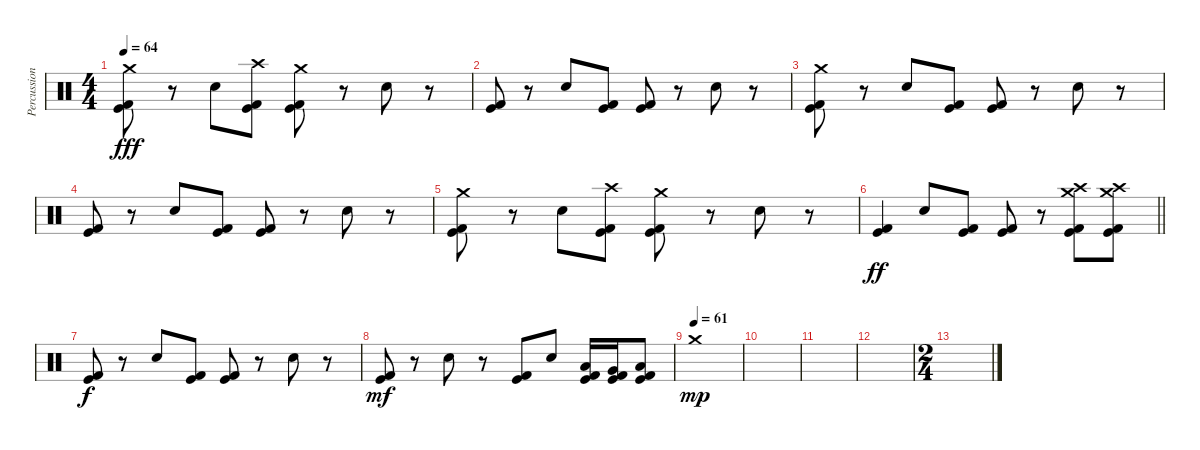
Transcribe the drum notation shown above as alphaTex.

\track ("Percussion" "Percussion") {instrument percussion}
\staff {score}
\articulation defaults
\ts (4 4)
\tempo 64
\clef neutral
\ks c
("Crash medium (hit)" "Kick (hit) 2" "Kick (hit)").8{dy fff} r.8 "Snare (hit) 2".8 ("Crash high (hit)" "Kick (hit) 2" "Kick (hit)").8 ("Crash medium (hit)" "Kick (hit) 2" "Kick (hit)").8 r.8 "Snare (hit) 2".8 r.8 |
("Kick (hit) 2" "Kick (hit)").8 r.8 "Snare (hit) 2".8 ("Kick (hit) 2" "Kick (hit)").8 ("Kick (hit) 2" "Kick (hit)").8 r.8 "Snare (hit) 2".8 r.8 |
("Crash medium (hit)" "Kick (hit) 2" "Kick (hit)").8 r.8 "Snare (hit) 2".8 ("Kick (hit) 2" "Kick (hit)").8 ("Kick (hit) 2" "Kick (hit)").8 r.8 "Snare (hit) 2".8 r.8 |
("Kick (hit) 2" "Kick (hit)").8 r.8 "Snare (hit) 2".8 ("Kick (hit) 2" "Kick (hit)").8 ("Kick (hit) 2" "Kick (hit)").8 r.8 "Snare (hit) 2".8 r.8 |
("Crash medium (hit)" "Kick (hit) 2" "Kick (hit)").8 r.8 "Snare (hit) 2".8 ("Crash high (hit)" "Kick (hit) 2" "Kick (hit)").8 ("Crash medium (hit)" "Kick (hit) 2" "Kick (hit)").8 r.8 "Snare (hit) 2".8 r.8 |
\barLineRight lightlight
("Kick (hit) 2" "Kick (hit)").4{dy ff} "Snare (hit) 2".8 ("Kick (hit) 2" "Kick (hit)").8 ("Kick (hit) 2" "Kick (hit)").8 r.8 ("Crash medium (hit)" "Crash high (hit)" "Kick (hit) 2" "Kick (hit)").8 ("Crash medium (hit)" "Crash high (hit)" "Kick (hit) 2" "Kick (hit)").8 |
("Kick (hit) 2" "Kick (hit)").8{dy f} r.8 "Snare (hit) 2".8 ("Kick (hit) 2" "Kick (hit)").8 ("Kick (hit) 2" "Kick (hit)").8 r.8 "Snare (hit) 2".8 r.8 |
("Kick (hit) 2" "Kick (hit)").8{dy mf} r.8 "Snare (hit) 2".8 r.8 ("Kick (hit) 2" "Kick (hit)").8 "Snare (hit) 2".8 ("Low Tom (hit)" "Kick (hit) 2" "Kick (hit)").16 ("Very Low Tom (hit)" "Kick (hit) 2" "Kick (hit)").16 ("Low Floor Tom (hit)" "Kick (hit) 2" "Kick (hit)").8 |
\tempo (61)
"Crash medium (hit)".1{dy mp} |
|
|
|
\ts (2 4)
